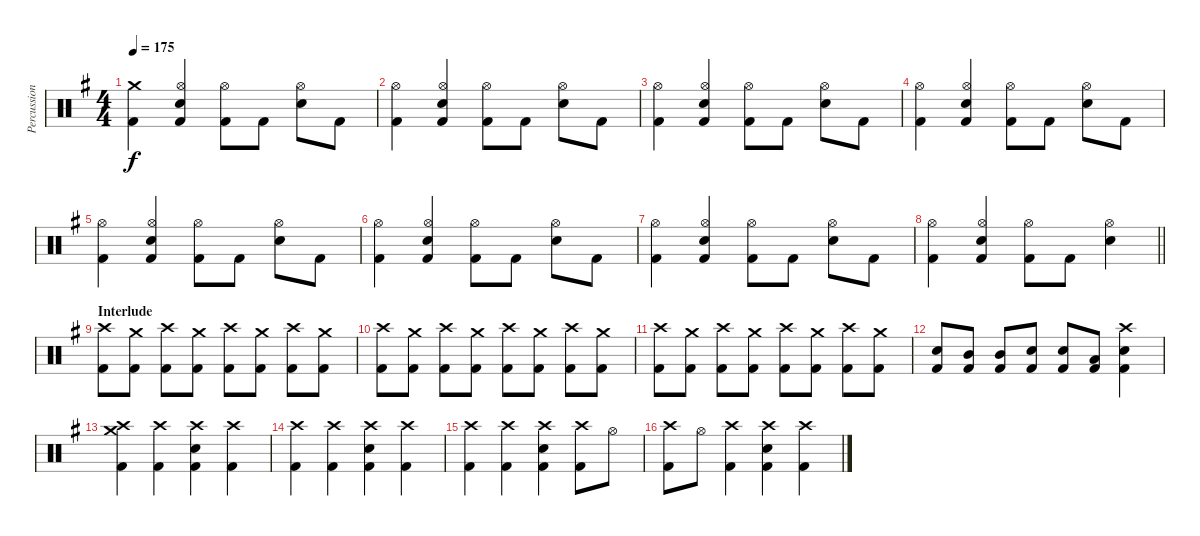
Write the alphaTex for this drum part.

\track ("Percussion" "Percussion") {instrument percussion}
\staff {score}
\articulation defaults
\ts (4 4)
\tempo 175
\clef neutral
\ks g
("Crash medium (hit)" "Kick (hit) 2").4{dy f} ("Hi-Hat (open)" "Snare (hit) 2" "Kick (hit) 2").4 ("Hi-Hat (open)" "Kick (hit) 2").8 "Kick (hit) 2".8 ("Hi-Hat (open)" "Snare (hit) 2").8 "Kick (hit) 2".8 |
("Hi-Hat (open)" "Kick (hit) 2").4 ("Hi-Hat (open)" "Snare (hit) 2" "Kick (hit) 2").4 ("Hi-Hat (open)" "Kick (hit) 2").8 "Kick (hit) 2".8 ("Hi-Hat (open)" "Snare (hit) 2").8 "Kick (hit) 2".8 |
("Hi-Hat (open)" "Kick (hit) 2").4 ("Hi-Hat (open)" "Snare (hit) 2" "Kick (hit) 2").4 ("Hi-Hat (open)" "Kick (hit) 2").8 "Kick (hit) 2".8 ("Hi-Hat (open)" "Snare (hit) 2").8 "Kick (hit) 2".8 |
("Hi-Hat (open)" "Kick (hit) 2").4 ("Hi-Hat (open)" "Snare (hit) 2" "Kick (hit) 2").4 ("Hi-Hat (open)" "Kick (hit) 2").8 "Kick (hit) 2".8 ("Hi-Hat (open)" "Snare (hit) 2").8 "Kick (hit) 2".8 |
("Hi-Hat (open)" "Kick (hit) 2").4 ("Hi-Hat (open)" "Snare (hit) 2" "Kick (hit) 2").4 ("Hi-Hat (open)" "Kick (hit) 2").8 "Kick (hit) 2".8 ("Hi-Hat (open)" "Snare (hit) 2").8 "Kick (hit) 2".8 |
("Hi-Hat (open)" "Kick (hit) 2").4 ("Hi-Hat (open)" "Snare (hit) 2" "Kick (hit) 2").4 ("Hi-Hat (open)" "Kick (hit) 2").8 "Kick (hit) 2".8 ("Hi-Hat (open)" "Snare (hit) 2").8 "Kick (hit) 2".8 |
("Hi-Hat (open)" "Kick (hit) 2").4 ("Hi-Hat (open)" "Snare (hit) 2" "Kick (hit) 2").4 ("Hi-Hat (open)" "Kick (hit) 2").8 "Kick (hit) 2".8 ("Hi-Hat (open)" "Snare (hit) 2").8 "Kick (hit) 2".8 |
\barLineRight lightlight
("Hi-Hat (open)" "Kick (hit) 2").4 ("Hi-Hat (open)" "Snare (hit) 2" "Kick (hit) 2").4 ("Hi-Hat (open)" "Kick (hit) 2").8 "Kick (hit) 2".8 ("Hi-Hat (open)" "Snare (hit) 2").4 |
\section ("" "Interlude")
("Crash high (hit)" "Kick (hit) 2").8 ("Crash medium (hit)" "Kick (hit) 2").8 ("Crash high (hit)" "Kick (hit) 2").8 ("Crash medium (hit)" "Kick (hit) 2").8 ("Crash high (hit)" "Kick (hit) 2").8 ("Crash medium (hit)" "Kick (hit) 2").8 ("Crash high (hit)" "Kick (hit) 2").8 ("Crash medium (hit)" "Kick (hit) 2").8 |
("Crash high (hit)" "Kick (hit) 2").8 ("Crash medium (hit)" "Kick (hit) 2").8 ("Crash high (hit)" "Kick (hit) 2").8 ("Crash medium (hit)" "Kick (hit) 2").8 ("Crash high (hit)" "Kick (hit) 2").8 ("Crash medium (hit)" "Kick (hit) 2").8 ("Crash high (hit)" "Kick (hit) 2").8 ("Crash medium (hit)" "Kick (hit) 2").8 |
("Crash high (hit)" "Kick (hit) 2").8 ("Crash medium (hit)" "Kick (hit) 2").8 ("Crash high (hit)" "Kick (hit) 2").8 ("Crash medium (hit)" "Kick (hit) 2").8 ("Crash high (hit)" "Kick (hit) 2").8 ("Crash medium (hit)" "Kick (hit) 2").8 ("Crash high (hit)" "Kick (hit) 2").8 ("Crash medium (hit)" "Kick (hit) 2").8 |
("Snare (hit) 2" "Kick (hit) 2").8 ("Mid Tom (hit)" "Kick (hit) 2").8 ("Mid Tom (hit)" "Kick (hit) 2").8 ("Snare (hit) 2" "Kick (hit) 2").8 ("Snare (hit) 2" "Kick (hit) 2").8 ("Low Floor Tom (hit)" "Kick (hit) 2").8 ("Crash high (hit)" "Snare (hit) 2" "Kick (hit) 2").4 |
("Crash medium (hit)" "Crash high (hit)" "Kick (hit) 2").4 ("Crash high (hit)" "Kick (hit) 2").4 ("Crash high (hit)" "Snare (hit) 2" "Kick (hit) 2").4 ("Crash high (hit)" "Kick (hit) 2").4 |
("Crash high (hit)" "Kick (hit) 2").4 ("Crash high (hit)" "Kick (hit) 2").4 ("Crash high (hit)" "Snare (hit) 2" "Kick (hit) 2").4 ("Crash high (hit)" "Kick (hit) 2").4 |
("Crash high (hit)" "Kick (hit) 2").4 ("Crash high (hit)" "Kick (hit) 2").4 ("Crash high (hit)" "Snare (hit) 2" "Kick (hit) 2").4 ("Crash high (hit)" "Kick (hit) 2").8 "Hi-Hat (open)".8 |
("Crash high (hit)" "Kick (hit) 2").8 "Hi-Hat (open)".8 ("Crash high (hit)" "Kick (hit) 2").4 ("Crash high (hit)" "Snare (hit) 2" "Kick (hit) 2").4 ("Crash high (hit)" "Kick (hit) 2").4
